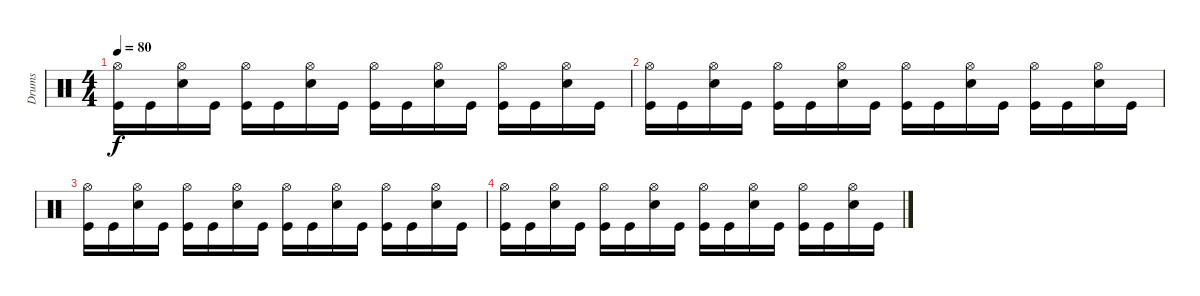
\track ("Drums" "Drums") {instrument percussion}
\staff {score}
\articulation defaults
\ts (4 4)
\tempo 80
\clef neutral
\ks c
("Hi-Hat (open)" "Kick (hit)").16{dy f} "Kick (hit)".16 ("Hi-Hat (open)" "Snare (hit) 2").16 "Kick (hit)".16 ("Hi-Hat (open)" "Kick (hit)").16 "Kick (hit)".16 ("Hi-Hat (open)" "Snare (hit) 2").16 "Kick (hit)".16 ("Hi-Hat (open)" "Kick (hit)").16 "Kick (hit)".16 ("Hi-Hat (open)" "Snare (hit) 2").16 "Kick (hit)".16 ("Hi-Hat (open)" "Kick (hit)").16 "Kick (hit)".16 ("Hi-Hat (open)" "Snare (hit) 2").16 "Kick (hit)".16 |
("Hi-Hat (open)" "Kick (hit)").16 "Kick (hit)".16 ("Hi-Hat (open)" "Snare (hit) 2").16 "Kick (hit)".16 ("Hi-Hat (open)" "Kick (hit)").16 "Kick (hit)".16 ("Hi-Hat (open)" "Snare (hit) 2").16 "Kick (hit)".16 ("Hi-Hat (open)" "Kick (hit)").16 "Kick (hit)".16 ("Hi-Hat (open)" "Snare (hit) 2").16 "Kick (hit)".16 ("Hi-Hat (open)" "Kick (hit)").16 "Kick (hit)".16 ("Hi-Hat (open)" "Snare (hit) 2").16 "Kick (hit)".16 |
("Hi-Hat (open)" "Kick (hit)").16 "Kick (hit)".16 ("Hi-Hat (open)" "Snare (hit) 2").16 "Kick (hit)".16 ("Hi-Hat (open)" "Kick (hit)").16 "Kick (hit)".16 ("Hi-Hat (open)" "Snare (hit) 2").16 "Kick (hit)".16 ("Hi-Hat (open)" "Kick (hit)").16 "Kick (hit)".16 ("Hi-Hat (open)" "Snare (hit) 2").16 "Kick (hit)".16 ("Hi-Hat (open)" "Kick (hit)").16 "Kick (hit)".16 ("Hi-Hat (open)" "Snare (hit) 2").16 "Kick (hit)".16 |
("Hi-Hat (open)" "Kick (hit)").16 "Kick (hit)".16 ("Hi-Hat (open)" "Snare (hit) 2").16 "Kick (hit)".16 ("Hi-Hat (open)" "Kick (hit)").16 "Kick (hit)".16 ("Hi-Hat (open)" "Snare (hit) 2").16 "Kick (hit)".16 ("Hi-Hat (open)" "Kick (hit)").16 "Kick (hit)".16 ("Hi-Hat (open)" "Snare (hit) 2").16 "Kick (hit)".16 ("Hi-Hat (open)" "Kick (hit)").16 "Kick (hit)".16 ("Hi-Hat (open)" "Snare (hit) 2").16 "Kick (hit)".16
